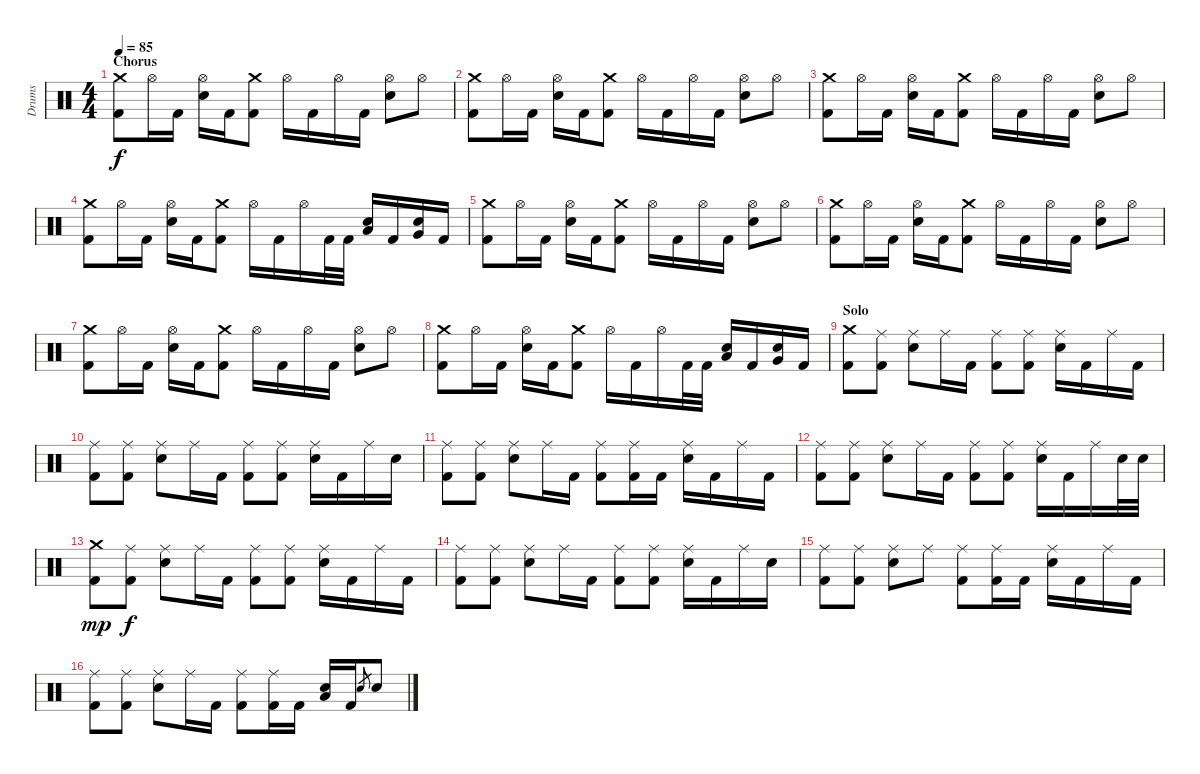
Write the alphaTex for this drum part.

\track ("Drums" "Drums") {instrument percussion}
\staff {score}
\articulation defaults
\ts (4 4)
\section ("" "Chorus")
\tempo 85
\clef neutral
\ks c
("Crash medium (hit)" "Kick (hit) 2").8{dy f} "Hi-Hat (open)".16 "Kick (hit) 2".16 ("Hi-Hat (open)" "Electric Snare (hit)").16 "Kick (hit) 2".16 ("Crash medium (hit)" "Kick (hit) 2").8 "Hi-Hat (open)".16 "Kick (hit) 2".16 "Hi-Hat (open)".16 "Kick (hit) 2".16 ("Hi-Hat (open)" "Electric Snare (hit)").8 "Hi-Hat (open)".8 |
("Crash medium (hit)" "Kick (hit) 2").8 "Hi-Hat (open)".16 "Kick (hit) 2".16 ("Hi-Hat (open)" "Electric Snare (hit)").16 "Kick (hit) 2".16 ("Crash medium (hit)" "Kick (hit) 2").8 "Hi-Hat (open)".16 "Kick (hit) 2".16 "Hi-Hat (open)".16 "Kick (hit) 2".16 ("Hi-Hat (open)" "Electric Snare (hit)").8 "Hi-Hat (open)".8 |
("Crash medium (hit)" "Kick (hit) 2").8 "Hi-Hat (open)".16 "Kick (hit) 2".16 ("Hi-Hat (open)" "Electric Snare (hit)").16 "Kick (hit) 2".16 ("Crash medium (hit)" "Kick (hit) 2").8 "Hi-Hat (open)".16 "Kick (hit) 2".16 "Hi-Hat (open)".16 "Kick (hit) 2".16 ("Hi-Hat (open)" "Electric Snare (hit)").8 "Hi-Hat (open)".8 |
("Crash medium (hit)" "Kick (hit) 2").8 "Hi-Hat (open)".16 "Kick (hit) 2".16 ("Hi-Hat (open)" "Electric Snare (hit)").16 "Kick (hit) 2".16 ("Crash medium (hit)" "Kick (hit) 2").8 "Hi-Hat (open)".16 "Kick (hit) 2".16 "Hi-Hat (open)".16 "Kick (hit) 2".32 "Kick (hit) 2".32 ("Electric Snare (hit)" "Low Tom (hit)").16 "Kick (hit) 2".16 ("Electric Snare (hit)" "Very Low Tom (hit)").16 "Kick (hit) 2".16 |
("Crash medium (hit)" "Kick (hit) 2").8 "Hi-Hat (open)".16 "Kick (hit) 2".16 ("Hi-Hat (open)" "Electric Snare (hit)").16 "Kick (hit) 2".16 ("Crash medium (hit)" "Kick (hit) 2").8 "Hi-Hat (open)".16 "Kick (hit) 2".16 "Hi-Hat (open)".16 "Kick (hit) 2".16 ("Hi-Hat (open)" "Electric Snare (hit)").8 "Hi-Hat (open)".8 |
("Crash medium (hit)" "Kick (hit) 2").8 "Hi-Hat (open)".16 "Kick (hit) 2".16 ("Hi-Hat (open)" "Electric Snare (hit)").16 "Kick (hit) 2".16 ("Crash medium (hit)" "Kick (hit) 2").8 "Hi-Hat (open)".16 "Kick (hit) 2".16 "Hi-Hat (open)".16 "Kick (hit) 2".16 ("Hi-Hat (open)" "Electric Snare (hit)").8 "Hi-Hat (open)".8 |
("Crash medium (hit)" "Kick (hit) 2").8 "Hi-Hat (open)".16 "Kick (hit) 2".16 ("Hi-Hat (open)" "Electric Snare (hit)").16 "Kick (hit) 2".16 ("Crash medium (hit)" "Kick (hit) 2").8 "Hi-Hat (open)".16 "Kick (hit) 2".16 "Hi-Hat (open)".16 "Kick (hit) 2".16 ("Hi-Hat (open)" "Electric Snare (hit)").8 "Hi-Hat (open)".8 |
("Crash medium (hit)" "Kick (hit) 2").8 "Hi-Hat (open)".16 "Kick (hit) 2".16 ("Hi-Hat (open)" "Electric Snare (hit)").16 "Kick (hit) 2".16 ("Crash medium (hit)" "Kick (hit) 2").8 "Hi-Hat (open)".16 "Kick (hit) 2".16 "Hi-Hat (open)".16 "Kick (hit) 2".32 "Kick (hit) 2".32 ("Electric Snare (hit)" "Low Tom (hit)").16 "Kick (hit) 2".16 ("Electric Snare (hit)" "Very Low Tom (hit)").16 "Kick (hit) 2".16 |
\section ("" "Solo")
("Crash medium (hit)" "Kick (hit) 2").8 ("Ride (middle)" "Kick (hit) 2").8 ("Ride (middle)" "Electric Snare (hit)").8 "Ride (middle)".16 "Kick (hit) 2".16 ("Ride (middle)" "Kick (hit) 2").8 ("Ride (middle)" "Kick (hit) 2").8 ("Ride (middle)" "Electric Snare (hit)").16 "Kick (hit) 2".16 "Ride (middle)".16 "Kick (hit) 2".16 |
("Ride (middle)" "Kick (hit) 2").8 ("Ride (middle)" "Kick (hit) 2").8 ("Ride (middle)" "Electric Snare (hit)").8 "Ride (middle)".16 "Kick (hit) 2".16 ("Ride (middle)" "Kick (hit) 2").8 ("Ride (middle)" "Kick (hit) 2").8 ("Ride (middle)" "Electric Snare (hit)").16 "Kick (hit) 2".16 "Ride (middle)".16 "Electric Snare (hit)".16 |
("Ride (middle)" "Kick (hit) 2").8 ("Ride (middle)" "Kick (hit) 2").8 ("Ride (middle)" "Electric Snare (hit)").8 "Ride (middle)".16 "Kick (hit) 2".16 ("Ride (middle)" "Kick (hit) 2").8 ("Ride (middle)" "Kick (hit) 2").16 "Kick (hit) 2".16 ("Ride (middle)" "Electric Snare (hit)").16 "Kick (hit) 2".16 "Ride (middle)".16 "Kick (hit) 2".16 |
("Ride (middle)" "Kick (hit) 2").8 ("Ride (middle)" "Kick (hit) 2").8 ("Ride (middle)" "Electric Snare (hit)").8 "Ride (middle)".16 "Kick (hit) 2".16 ("Ride (middle)" "Kick (hit) 2").8 ("Ride (middle)" "Kick (hit) 2").8 ("Ride (middle)" "Electric Snare (hit)").16 "Kick (hit) 2".16 "Ride (middle)".16 "Electric Snare (hit)".32 "Electric Snare (hit)".32 |
("Crash medium (hit)" "Kick (hit) 2").8{dy mp} ("Ride (middle)" "Kick (hit) 2").8{dy f} ("Ride (middle)" "Electric Snare (hit)").8 "Ride (middle)".16 "Kick (hit) 2".16 ("Ride (middle)" "Kick (hit) 2").8 ("Ride (middle)" "Kick (hit) 2").8 ("Ride (middle)" "Electric Snare (hit)").16 "Kick (hit) 2".16 "Ride (middle)".16 "Kick (hit) 2".16 |
("Ride (middle)" "Kick (hit) 2").8 ("Ride (middle)" "Kick (hit) 2").8 ("Ride (middle)" "Electric Snare (hit)").8 "Ride (middle)".16 "Kick (hit) 2".16 ("Ride (middle)" "Kick (hit) 2").8 ("Ride (middle)" "Kick (hit) 2").8 ("Ride (middle)" "Electric Snare (hit)").16 "Kick (hit) 2".16 "Ride (middle)".16 "Electric Snare (hit)".16 |
("Ride (middle)" "Kick (hit) 2").8 ("Ride (middle)" "Kick (hit) 2").8 ("Ride (middle)" "Electric Snare (hit)").8 "Ride (middle)".8 ("Ride (middle)" "Kick (hit) 2").8 ("Ride (middle)" "Kick (hit) 2").16 "Kick (hit) 2".16 ("Ride (middle)" "Electric Snare (hit)").16 "Kick (hit) 2".16 "Ride (middle)".16 "Kick (hit) 2".16 |
("Ride (middle)" "Kick (hit) 2").8 ("Ride (middle)" "Kick (hit) 2").8 ("Ride (middle)" "Electric Snare (hit)").8 "Ride (middle)".16 "Kick (hit) 2".16 ("Ride (middle)" "Kick (hit) 2").8 ("Ride (middle)" "Kick (hit) 2").16 "Kick (hit) 2".16 ("Electric Snare (hit)" "Low Tom (hit)").16 "Kick (hit) 2".16 "Electric Snare (hit)".8{gr} "Electric Snare (hit)".8
